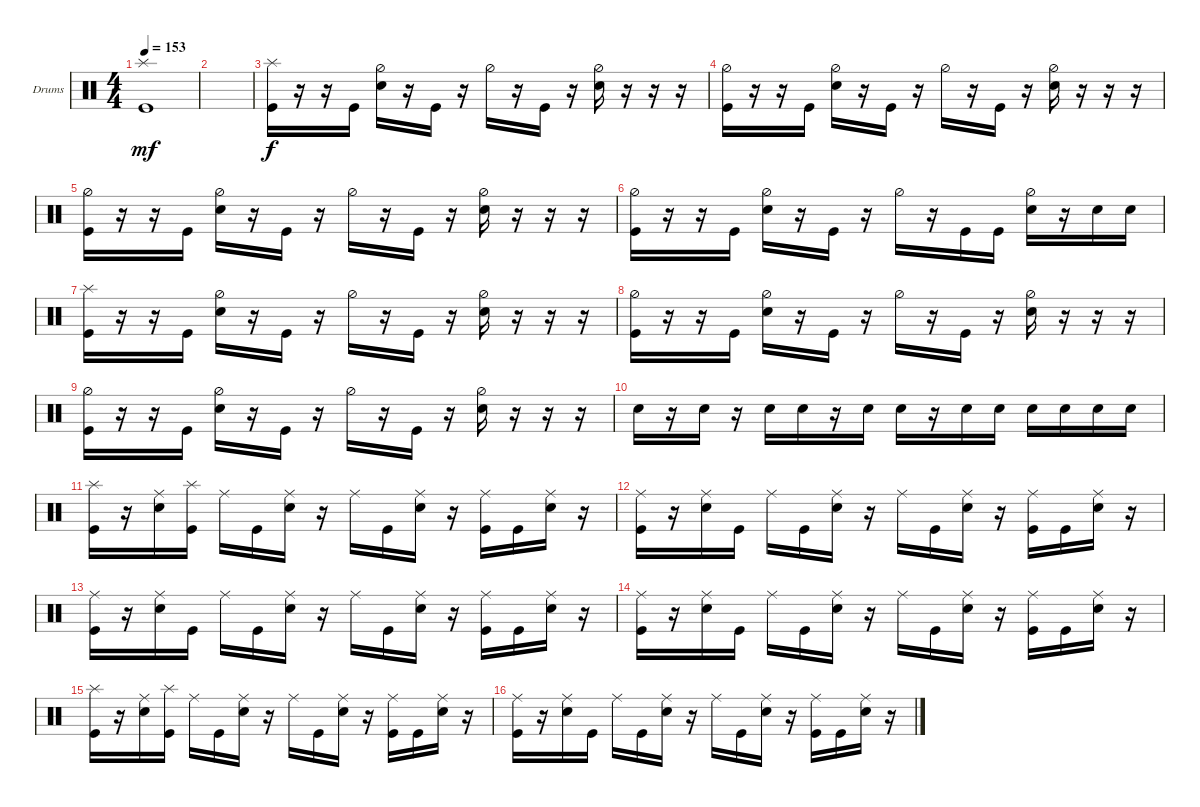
\bracketExtendMode groupsimilarinstruments
\firstSystemTrackNameOrientation horizontal
\otherSystemsTrackNameOrientation horizontal
\track ("Drumkit" "Drums") {instrument percussion}
\staff {score}
\articulation defaults
\ts (4 4)
\tempo 153
\clef neutral
\ks c
("Kick (hit)" "Splash (hit)").1{dy mf} |
|
("Kick (hit)" "Splash (hit)").16{dy f} r.16 r.16 "Kick (hit)".16 ("Snare (hit) 2" "Hi-Hat (half)").16 r.16 "Kick (hit)".16 r.16 "Hi-Hat (half)".16 r.16 "Kick (hit)".16 r.16 ("Snare (hit) 2" "Hi-Hat (half)").16 r.16 r.16 r.16 |
("Kick (hit)" "Hi-Hat (half)").16 r.16 r.16 "Kick (hit)".16 ("Snare (hit) 2" "Hi-Hat (half)").16 r.16 "Kick (hit)".16 r.16 "Hi-Hat (half)".16 r.16 "Kick (hit)".16 r.16 ("Snare (hit) 2" "Hi-Hat (half)").16 r.16 r.16 r.16 |
("Kick (hit)" "Hi-Hat (half)").16 r.16 r.16 "Kick (hit)".16 ("Snare (hit) 2" "Hi-Hat (half)").16 r.16 "Kick (hit)".16 r.16 "Hi-Hat (half)".16 r.16 "Kick (hit)".16 r.16 ("Snare (hit) 2" "Hi-Hat (half)").16 r.16 r.16 r.16 |
("Kick (hit)" "Hi-Hat (half)").16 r.16 r.16 "Kick (hit)".16 ("Snare (hit) 2" "Hi-Hat (half)").16 r.16 "Kick (hit)".16 r.16 "Hi-Hat (half)".16 r.16 "Kick (hit)".16 "Kick (hit)".16 ("Snare (hit) 2" "Hi-Hat (half)").16 r.16 "Snare (hit) 2".16 "Snare (hit) 2".16 |
("Kick (hit)" "Splash (hit)").16 r.16 r.16 "Kick (hit)".16 ("Snare (hit) 2" "Hi-Hat (half)").16 r.16 "Kick (hit)".16 r.16 "Hi-Hat (half)".16 r.16 "Kick (hit)".16 r.16 ("Snare (hit) 2" "Hi-Hat (half)").16 r.16 r.16 r.16 |
("Kick (hit)" "Hi-Hat (half)").16 r.16 r.16 "Kick (hit)".16 ("Snare (hit) 2" "Hi-Hat (half)").16 r.16 "Kick (hit)".16 r.16 "Hi-Hat (half)".16 r.16 "Kick (hit)".16 r.16 ("Snare (hit) 2" "Hi-Hat (half)").16 r.16 r.16 r.16 |
("Kick (hit)" "Hi-Hat (half)").16 r.16 r.16 "Kick (hit)".16 ("Snare (hit) 2" "Hi-Hat (half)").16 r.16 "Kick (hit)".16 r.16 "Hi-Hat (half)".16 r.16 "Kick (hit)".16 r.16 ("Snare (hit) 2" "Hi-Hat (half)").16 r.16 r.16 r.16 |
"Snare (hit) 2".16 r.16 "Snare (hit) 2".16 r.16 "Snare (hit) 2".16 "Snare (hit) 2".16 r.16 "Snare (hit) 2".16 "Snare (hit) 2".16 r.16 "Snare (hit) 2".16 "Snare (hit) 2".16 "Snare (hit) 2".16 "Snare (hit) 2".16 "Snare (hit) 2".16 "Snare (hit) 2".16 |
("Kick (hit)" "Splash (hit)").16 r.16 ("Snare (hit) 2" "Ride (middle)").16 ("Kick (hit)" "Splash (hit)").16 "Ride (middle)".16 "Kick (hit)".16 ("Snare (hit) 2" "Ride (middle)").16 r.16 "Ride (middle)".16 "Kick (hit)".16 ("Snare (hit) 2" "Ride (middle)").16 r.16 ("Kick (hit)" "Ride (middle)").16 "Kick (hit)".16 ("Snare (hit) 2" "Ride (middle)").16 r.16 |
("Kick (hit)" "Ride (middle)").16 r.16 ("Snare (hit) 2" "Ride (middle)").16 "Kick (hit)".16 "Ride (middle)".16 "Kick (hit)".16 ("Snare (hit) 2" "Ride (middle)").16 r.16 "Ride (middle)".16 "Kick (hit)".16 ("Snare (hit) 2" "Ride (middle)").16 r.16 ("Kick (hit)" "Ride (middle)").16 "Kick (hit)".16 ("Snare (hit) 2" "Ride (middle)").16 r.16 |
("Kick (hit)" "Ride (middle)").16 r.16 ("Snare (hit) 2" "Ride (middle)").16 "Kick (hit)".16 "Ride (middle)".16 "Kick (hit)".16 ("Snare (hit) 2" "Ride (middle)").16 r.16 "Ride (middle)".16 "Kick (hit)".16 ("Snare (hit) 2" "Ride (middle)").16 r.16 ("Kick (hit)" "Ride (middle)").16 "Kick (hit)".16 ("Snare (hit) 2" "Ride (middle)").16 r.16 |
("Kick (hit)" "Ride (middle)").16 r.16 ("Snare (hit) 2" "Ride (middle)").16 "Kick (hit)".16 "Ride (middle)".16 "Kick (hit)".16 ("Snare (hit) 2" "Ride (middle)").16 r.16 "Ride (middle)".16 "Kick (hit)".16 ("Snare (hit) 2" "Ride (middle)").16 r.16 ("Kick (hit)" "Ride (middle)").16 "Kick (hit)".16 ("Snare (hit) 2" "Ride (middle)").16 r.16 |
("Kick (hit)" "Splash (hit)").16 r.16 ("Snare (hit) 2" "Ride (middle)").16 ("Kick (hit)" "Splash (hit)").16 "Ride (middle)".16 "Kick (hit)".16 ("Snare (hit) 2" "Ride (middle)").16 r.16 "Ride (middle)".16 "Kick (hit)".16 ("Snare (hit) 2" "Ride (middle)").16 r.16 ("Kick (hit)" "Ride (middle)").16 "Kick (hit)".16 ("Snare (hit) 2" "Ride (middle)").16 r.16 |
("Kick (hit)" "Ride (middle)").16 r.16 ("Snare (hit) 2" "Ride (middle)").16 "Kick (hit)".16 "Ride (middle)".16 "Kick (hit)".16 ("Snare (hit) 2" "Ride (middle)").16 r.16 "Ride (middle)".16 "Kick (hit)".16 ("Snare (hit) 2" "Ride (middle)").16 r.16 ("Kick (hit)" "Ride (middle)").16 "Kick (hit)".16 ("Snare (hit) 2" "Ride (middle)").16 r.16
